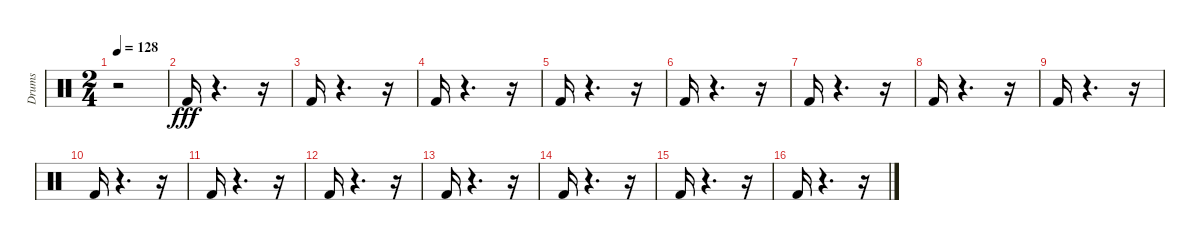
\track ("Drums" "Drums") {instrument percussion}
\staff {score}
\articulation defaults
\ts (2 4)
\tempo 128
\clef neutral
\ks c
r.2{dy fff} |
"Kick (hit) 2".16 r.4{d} r.16 |
"Kick (hit) 2".16 r.4{d} r.16 |
"Kick (hit) 2".16 r.4{d} r.16 |
"Kick (hit) 2".16 r.4{d} r.16 |
"Kick (hit) 2".16 r.4{d} r.16 |
"Kick (hit) 2".16 r.4{d} r.16 |
"Kick (hit) 2".16 r.4{d} r.16 |
"Kick (hit) 2".16 r.4{d} r.16 |
"Kick (hit) 2".16 r.4{d} r.16 |
"Kick (hit) 2".16 r.4{d} r.16 |
"Kick (hit) 2".16 r.4{d} r.16 |
"Kick (hit) 2".16 r.4{d} r.16 |
"Kick (hit) 2".16 r.4{d} r.16 |
"Kick (hit) 2".16 r.4{d} r.16 |
"Kick (hit) 2".16 r.4{d} r.16
